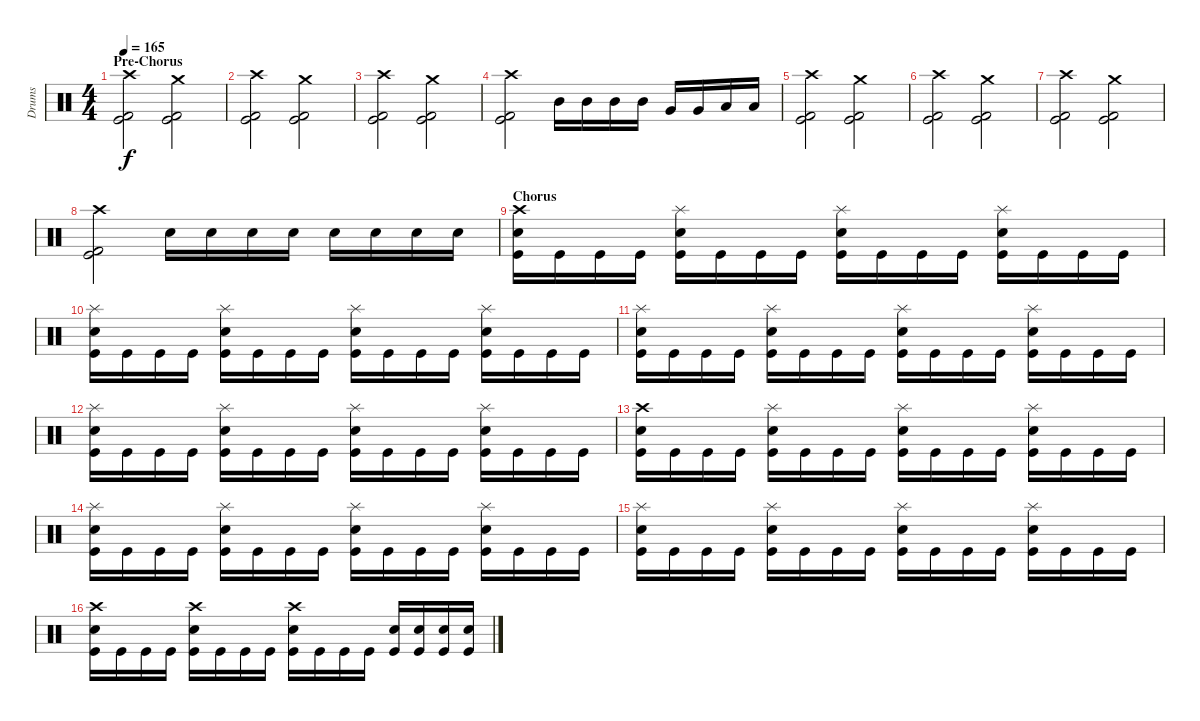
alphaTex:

\track ("Drums" "Drums") {instrument percussion}
\staff {score}
\articulation defaults
\ts (4 4)
\section ("" "Pre-Chorus")
\tempo 165
\clef neutral
\ks c
("Crash high (hit)" "Kick (hit)" "Kick (hit) 2").2{dy f} ("Crash medium (hit)" "Kick (hit)" "Kick (hit) 2").2 |
("Crash high (hit)" "Kick (hit)" "Kick (hit) 2").2 ("Crash medium (hit)" "Kick (hit)" "Kick (hit) 2").2 |
("Crash high (hit)" "Kick (hit)" "Kick (hit) 2").2 ("Crash medium (hit)" "Kick (hit)" "Kick (hit) 2").2 |
("Crash high (hit)" "Kick (hit)" "Kick (hit) 2").2 "Mid Tom (hit)".16 "Mid Tom (hit)".16 "Mid Tom (hit)".16 "Mid Tom (hit)".16 "Very Low Tom (hit)".16 "Very Low Tom (hit)".16 "Low Floor Tom (hit)".16 "Low Floor Tom (hit)".16 |
("Crash high (hit)" "Kick (hit)" "Kick (hit) 2").2 ("Crash medium (hit)" "Kick (hit)" "Kick (hit) 2").2 |
("Crash high (hit)" "Kick (hit)" "Kick (hit) 2").2 ("Crash medium (hit)" "Kick (hit)" "Kick (hit) 2").2 |
("Crash high (hit)" "Kick (hit)" "Kick (hit) 2").2 ("Crash medium (hit)" "Kick (hit)" "Kick (hit) 2").2 |
("Crash high (hit)" "Kick (hit)" "Kick (hit) 2").2 "Electric Snare (hit)".16{volume 10} "Electric Snare (hit)".16{volume 11} "Electric Snare (hit)".16{volume 13} "Electric Snare (hit)".16{volume 14} "Electric Snare (hit)".16 "Electric Snare (hit)".16 "Electric Snare (hit)".16 "Electric Snare (hit)".16 |
\section ("" "Chorus")
("Crash high (hit)" "Electric Snare (hit)" "Kick (hit)").16 "Kick (hit)".16 "Kick (hit)".16 "Kick (hit)".16 ("Splash (hit)" "Electric Snare (hit)" "Kick (hit)").16 "Kick (hit)".16 "Kick (hit)".16 "Kick (hit)".16 ("Splash (hit)" "Electric Snare (hit)" "Kick (hit)").16 "Kick (hit)".16 "Kick (hit)".16 "Kick (hit)".16 ("Splash (hit)" "Electric Snare (hit)" "Kick (hit)").16 "Kick (hit)".16 "Kick (hit)".16 "Kick (hit)".16 |
("Splash (hit)" "Electric Snare (hit)" "Kick (hit)").16 "Kick (hit)".16 "Kick (hit)".16 "Kick (hit)".16 ("Splash (hit)" "Electric Snare (hit)" "Kick (hit)").16 "Kick (hit)".16 "Kick (hit)".16 "Kick (hit)".16 ("Splash (hit)" "Electric Snare (hit)" "Kick (hit)").16 "Kick (hit)".16 "Kick (hit)".16 "Kick (hit)".16 ("Splash (hit)" "Electric Snare (hit)" "Kick (hit)").16 "Kick (hit)".16 "Kick (hit)".16 "Kick (hit)".16 |
("Splash (hit)" "Electric Snare (hit)" "Kick (hit)").16 "Kick (hit)".16 "Kick (hit)".16 "Kick (hit)".16 ("Splash (hit)" "Electric Snare (hit)" "Kick (hit)").16 "Kick (hit)".16 "Kick (hit)".16 "Kick (hit)".16 ("Splash (hit)" "Electric Snare (hit)" "Kick (hit)").16 "Kick (hit)".16 "Kick (hit)".16 "Kick (hit)".16 ("Splash (hit)" "Electric Snare (hit)" "Kick (hit)").16 "Kick (hit)".16 "Kick (hit)".16 "Kick (hit)".16 |
("Splash (hit)" "Electric Snare (hit)" "Kick (hit)").16 "Kick (hit)".16 "Kick (hit)".16 "Kick (hit)".16 ("Splash (hit)" "Electric Snare (hit)" "Kick (hit)").16 "Kick (hit)".16 "Kick (hit)".16 "Kick (hit)".16 ("Splash (hit)" "Electric Snare (hit)" "Kick (hit)").16 "Kick (hit)".16 "Kick (hit)".16 "Kick (hit)".16 ("Splash (hit)" "Electric Snare (hit)" "Kick (hit)").16 "Kick (hit)".16 "Kick (hit)".16 "Kick (hit)".16 |
("Crash high (hit)" "Electric Snare (hit)" "Kick (hit)").16 "Kick (hit)".16 "Kick (hit)".16 "Kick (hit)".16 ("Splash (hit)" "Electric Snare (hit)" "Kick (hit)").16 "Kick (hit)".16 "Kick (hit)".16 "Kick (hit)".16 ("Splash (hit)" "Electric Snare (hit)" "Kick (hit)").16 "Kick (hit)".16 "Kick (hit)".16 "Kick (hit)".16 ("Splash (hit)" "Electric Snare (hit)" "Kick (hit)").16 "Kick (hit)".16 "Kick (hit)".16 "Kick (hit)".16 |
("Splash (hit)" "Electric Snare (hit)" "Kick (hit)").16 "Kick (hit)".16 "Kick (hit)".16 "Kick (hit)".16 ("Splash (hit)" "Electric Snare (hit)" "Kick (hit)").16 "Kick (hit)".16 "Kick (hit)".16 "Kick (hit)".16 ("Splash (hit)" "Electric Snare (hit)" "Kick (hit)").16 "Kick (hit)".16 "Kick (hit)".16 "Kick (hit)".16 ("Splash (hit)" "Electric Snare (hit)" "Kick (hit)").16 "Kick (hit)".16 "Kick (hit)".16 "Kick (hit)".16 |
("Splash (hit)" "Electric Snare (hit)" "Kick (hit)").16 "Kick (hit)".16 "Kick (hit)".16 "Kick (hit)".16 ("Splash (hit)" "Electric Snare (hit)" "Kick (hit)").16 "Kick (hit)".16 "Kick (hit)".16 "Kick (hit)".16 ("Splash (hit)" "Electric Snare (hit)" "Kick (hit)").16 "Kick (hit)".16 "Kick (hit)".16 "Kick (hit)".16 ("Splash (hit)" "Electric Snare (hit)" "Kick (hit)").16 "Kick (hit)".16 "Kick (hit)".16 "Kick (hit)".16 |
("Crash high (hit)" "Electric Snare (hit)" "Kick (hit)").16 "Kick (hit)".16 "Kick (hit)".16 "Kick (hit)".16 ("Crash high (hit)" "Electric Snare (hit)" "Kick (hit)").16 "Kick (hit)".16 "Kick (hit)".16 "Kick (hit)".16 ("Crash high (hit)" "Electric Snare (hit)" "Kick (hit)").16 "Kick (hit)".16 "Kick (hit)".16 "Kick (hit)".16 ("Electric Snare (hit)" "Kick (hit)").16 ("Electric Snare (hit)" "Kick (hit)").16 ("Electric Snare (hit)" "Kick (hit)").16 ("Electric Snare (hit)" "Kick (hit)").16
